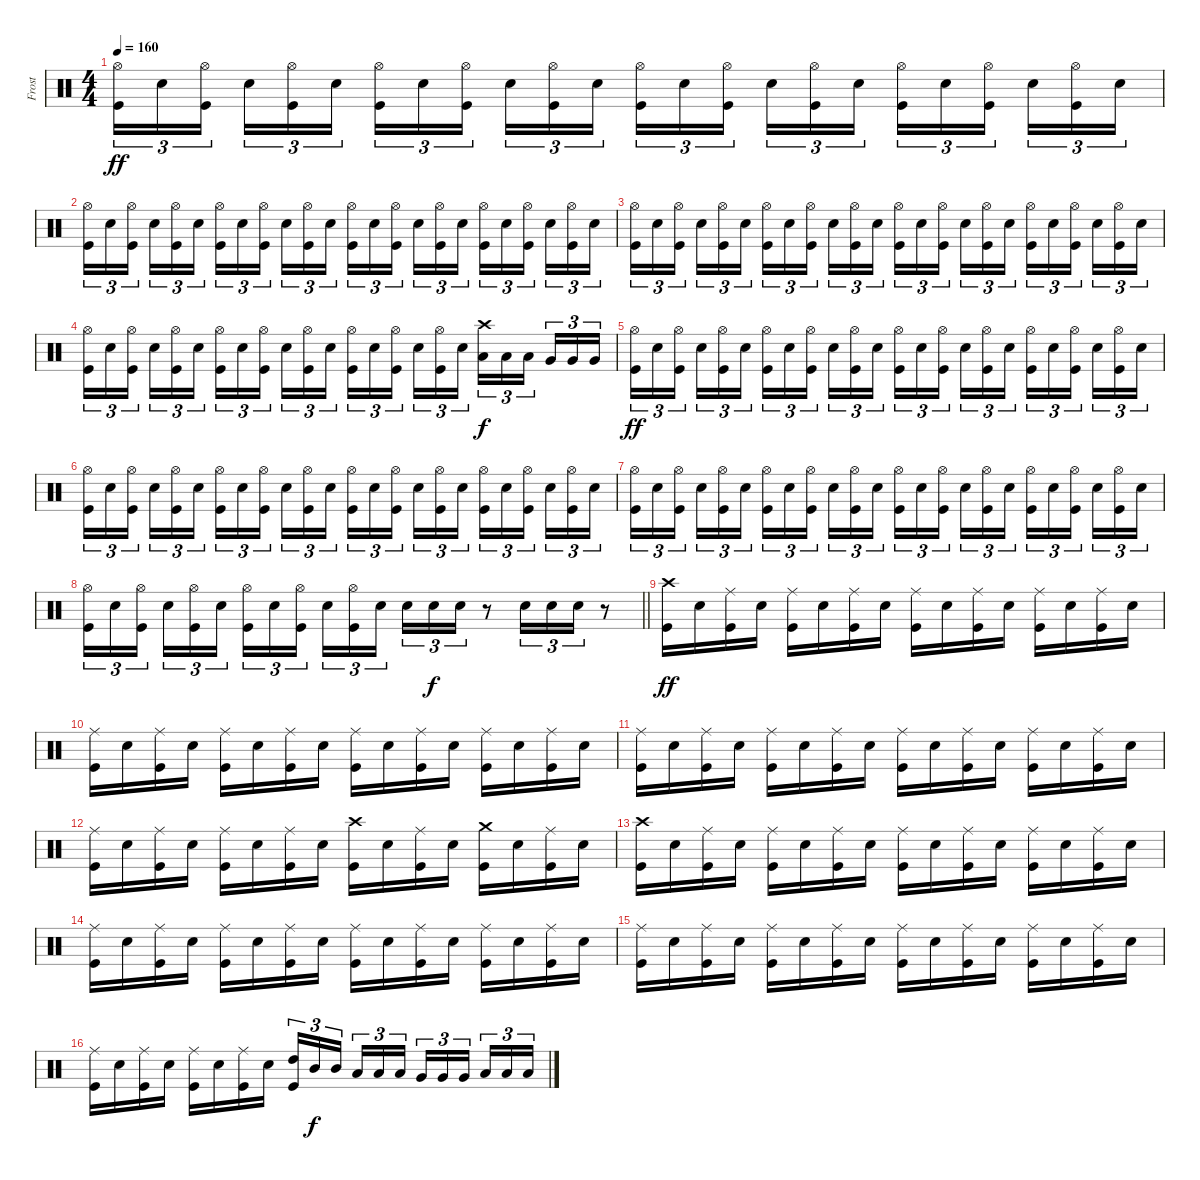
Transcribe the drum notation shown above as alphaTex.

\track ("Frost" "Frost") {instrument percussion}
\staff {score}
\articulation defaults
\ts (4 4)
\tempo 160
\clef neutral
\ks c
("Hi-Hat (open)" "Kick (hit)").16{tu (3 2) dy ff} "Snare (hit) 2".16{tu (3 2)} ("Hi-Hat (open)" "Kick (hit)").16{tu (3 2) beam splitsecondary} "Snare (hit) 2".16{tu (3 2)} ("Hi-Hat (open)" "Kick (hit)").16{tu (3 2)} "Snare (hit) 2".16{tu (3 2)} ("Hi-Hat (open)" "Kick (hit)").16{tu (3 2)} "Snare (hit) 2".16{tu (3 2)} ("Hi-Hat (open)" "Kick (hit)").16{tu (3 2) beam splitsecondary} "Snare (hit) 2".16{tu (3 2)} ("Hi-Hat (open)" "Kick (hit)").16{tu (3 2)} "Snare (hit) 2".16{tu (3 2)} ("Hi-Hat (open)" "Kick (hit)").16{tu (3 2)} "Snare (hit) 2".16{tu (3 2)} ("Hi-Hat (open)" "Kick (hit)").16{tu (3 2) beam splitsecondary} "Snare (hit) 2".16{tu (3 2)} ("Hi-Hat (open)" "Kick (hit)").16{tu (3 2)} "Snare (hit) 2".16{tu (3 2)} ("Hi-Hat (open)" "Kick (hit)").16{tu (3 2)} "Snare (hit) 2".16{tu (3 2)} ("Hi-Hat (open)" "Kick (hit)").16{tu (3 2) beam splitsecondary} "Snare (hit) 2".16{tu (3 2)} ("Hi-Hat (open)" "Kick (hit)").16{tu (3 2)} "Snare (hit) 2".16{tu (3 2)} |
("Hi-Hat (open)" "Kick (hit)").16{tu (3 2)} "Snare (hit) 2".16{tu (3 2)} ("Hi-Hat (open)" "Kick (hit)").16{tu (3 2) beam splitsecondary} "Snare (hit) 2".16{tu (3 2)} ("Hi-Hat (open)" "Kick (hit)").16{tu (3 2)} "Snare (hit) 2".16{tu (3 2)} ("Hi-Hat (open)" "Kick (hit)").16{tu (3 2)} "Snare (hit) 2".16{tu (3 2)} ("Hi-Hat (open)" "Kick (hit)").16{tu (3 2) beam splitsecondary} "Snare (hit) 2".16{tu (3 2)} ("Hi-Hat (open)" "Kick (hit)").16{tu (3 2)} "Snare (hit) 2".16{tu (3 2)} ("Hi-Hat (open)" "Kick (hit)").16{tu (3 2)} "Snare (hit) 2".16{tu (3 2)} ("Hi-Hat (open)" "Kick (hit)").16{tu (3 2) beam splitsecondary} "Snare (hit) 2".16{tu (3 2)} ("Hi-Hat (open)" "Kick (hit)").16{tu (3 2)} "Snare (hit) 2".16{tu (3 2)} ("Hi-Hat (open)" "Kick (hit)").16{tu (3 2)} "Snare (hit) 2".16{tu (3 2)} ("Hi-Hat (open)" "Kick (hit)").16{tu (3 2) beam splitsecondary} "Snare (hit) 2".16{tu (3 2)} ("Hi-Hat (open)" "Kick (hit)").16{tu (3 2)} "Snare (hit) 2".16{tu (3 2)} |
("Hi-Hat (open)" "Kick (hit)").16{tu (3 2)} "Snare (hit) 2".16{tu (3 2)} ("Hi-Hat (open)" "Kick (hit)").16{tu (3 2) beam splitsecondary} "Snare (hit) 2".16{tu (3 2)} ("Hi-Hat (open)" "Kick (hit)").16{tu (3 2)} "Snare (hit) 2".16{tu (3 2)} ("Hi-Hat (open)" "Kick (hit)").16{tu (3 2)} "Snare (hit) 2".16{tu (3 2)} ("Hi-Hat (open)" "Kick (hit)").16{tu (3 2) beam splitsecondary} "Snare (hit) 2".16{tu (3 2)} ("Hi-Hat (open)" "Kick (hit)").16{tu (3 2)} "Snare (hit) 2".16{tu (3 2)} ("Hi-Hat (open)" "Kick (hit)").16{tu (3 2)} "Snare (hit) 2".16{tu (3 2)} ("Hi-Hat (open)" "Kick (hit)").16{tu (3 2) beam splitsecondary} "Snare (hit) 2".16{tu (3 2)} ("Hi-Hat (open)" "Kick (hit)").16{tu (3 2)} "Snare (hit) 2".16{tu (3 2)} ("Hi-Hat (open)" "Kick (hit)").16{tu (3 2)} "Snare (hit) 2".16{tu (3 2)} ("Hi-Hat (open)" "Kick (hit)").16{tu (3 2) beam splitsecondary} "Snare (hit) 2".16{tu (3 2)} ("Hi-Hat (open)" "Kick (hit)").16{tu (3 2)} "Snare (hit) 2".16{tu (3 2)} |
("Hi-Hat (open)" "Kick (hit)").16{tu (3 2)} "Snare (hit) 2".16{tu (3 2)} ("Hi-Hat (open)" "Kick (hit)").16{tu (3 2) beam splitsecondary} "Snare (hit) 2".16{tu (3 2)} ("Hi-Hat (open)" "Kick (hit)").16{tu (3 2)} "Snare (hit) 2".16{tu (3 2)} ("Hi-Hat (open)" "Kick (hit)").16{tu (3 2)} "Snare (hit) 2".16{tu (3 2)} ("Hi-Hat (open)" "Kick (hit)").16{tu (3 2) beam splitsecondary} "Snare (hit) 2".16{tu (3 2)} ("Hi-Hat (open)" "Kick (hit)").16{tu (3 2)} "Snare (hit) 2".16{tu (3 2)} ("Hi-Hat (open)" "Kick (hit)").16{tu (3 2)} "Snare (hit) 2".16{tu (3 2)} ("Hi-Hat (open)" "Kick (hit)").16{tu (3 2) beam splitsecondary} "Snare (hit) 2".16{tu (3 2)} ("Hi-Hat (open)" "Kick (hit)").16{tu (3 2)} "Snare (hit) 2".16{tu (3 2)} ("Crash high (hit)" "Low Tom (hit)").16{tu (3 2) dy f} "Low Tom (hit)".16{tu (3 2)} "Low Tom (hit)".16{tu (3 2) beam splitsecondary} "Very Low Tom (hit)".16{tu (3 2)} "Very Low Tom (hit)".16{tu (3 2)} "Very Low Tom (hit)".16{tu (3 2)} |
("Hi-Hat (open)" "Kick (hit)").16{tu (3 2) dy ff} "Snare (hit) 2".16{tu (3 2)} ("Hi-Hat (open)" "Kick (hit)").16{tu (3 2) beam splitsecondary} "Snare (hit) 2".16{tu (3 2)} ("Hi-Hat (open)" "Kick (hit)").16{tu (3 2)} "Snare (hit) 2".16{tu (3 2)} ("Hi-Hat (open)" "Kick (hit)").16{tu (3 2)} "Snare (hit) 2".16{tu (3 2)} ("Hi-Hat (open)" "Kick (hit)").16{tu (3 2) beam splitsecondary} "Snare (hit) 2".16{tu (3 2)} ("Hi-Hat (open)" "Kick (hit)").16{tu (3 2)} "Snare (hit) 2".16{tu (3 2)} ("Hi-Hat (open)" "Kick (hit)").16{tu (3 2)} "Snare (hit) 2".16{tu (3 2)} ("Hi-Hat (open)" "Kick (hit)").16{tu (3 2) beam splitsecondary} "Snare (hit) 2".16{tu (3 2)} ("Hi-Hat (open)" "Kick (hit)").16{tu (3 2)} "Snare (hit) 2".16{tu (3 2)} ("Hi-Hat (open)" "Kick (hit)").16{tu (3 2)} "Snare (hit) 2".16{tu (3 2)} ("Hi-Hat (open)" "Kick (hit)").16{tu (3 2) beam splitsecondary} "Snare (hit) 2".16{tu (3 2)} ("Hi-Hat (open)" "Kick (hit)").16{tu (3 2)} "Snare (hit) 2".16{tu (3 2)} |
("Hi-Hat (open)" "Kick (hit)").16{tu (3 2)} "Snare (hit) 2".16{tu (3 2)} ("Hi-Hat (open)" "Kick (hit)").16{tu (3 2) beam splitsecondary} "Snare (hit) 2".16{tu (3 2)} ("Hi-Hat (open)" "Kick (hit)").16{tu (3 2)} "Snare (hit) 2".16{tu (3 2)} ("Hi-Hat (open)" "Kick (hit)").16{tu (3 2)} "Snare (hit) 2".16{tu (3 2)} ("Hi-Hat (open)" "Kick (hit)").16{tu (3 2) beam splitsecondary} "Snare (hit) 2".16{tu (3 2)} ("Hi-Hat (open)" "Kick (hit)").16{tu (3 2)} "Snare (hit) 2".16{tu (3 2)} ("Hi-Hat (open)" "Kick (hit)").16{tu (3 2)} "Snare (hit) 2".16{tu (3 2)} ("Hi-Hat (open)" "Kick (hit)").16{tu (3 2) beam splitsecondary} "Snare (hit) 2".16{tu (3 2)} ("Hi-Hat (open)" "Kick (hit)").16{tu (3 2)} "Snare (hit) 2".16{tu (3 2)} ("Hi-Hat (open)" "Kick (hit)").16{tu (3 2)} "Snare (hit) 2".16{tu (3 2)} ("Hi-Hat (open)" "Kick (hit)").16{tu (3 2) beam splitsecondary} "Snare (hit) 2".16{tu (3 2)} ("Hi-Hat (open)" "Kick (hit)").16{tu (3 2)} "Snare (hit) 2".16{tu (3 2)} |
("Hi-Hat (open)" "Kick (hit)").16{tu (3 2)} "Snare (hit) 2".16{tu (3 2)} ("Hi-Hat (open)" "Kick (hit)").16{tu (3 2) beam splitsecondary} "Snare (hit) 2".16{tu (3 2)} ("Hi-Hat (open)" "Kick (hit)").16{tu (3 2)} "Snare (hit) 2".16{tu (3 2)} ("Hi-Hat (open)" "Kick (hit)").16{tu (3 2)} "Snare (hit) 2".16{tu (3 2)} ("Hi-Hat (open)" "Kick (hit)").16{tu (3 2) beam splitsecondary} "Snare (hit) 2".16{tu (3 2)} ("Hi-Hat (open)" "Kick (hit)").16{tu (3 2)} "Snare (hit) 2".16{tu (3 2)} ("Hi-Hat (open)" "Kick (hit)").16{tu (3 2)} "Snare (hit) 2".16{tu (3 2)} ("Hi-Hat (open)" "Kick (hit)").16{tu (3 2) beam splitsecondary} "Snare (hit) 2".16{tu (3 2)} ("Hi-Hat (open)" "Kick (hit)").16{tu (3 2)} "Snare (hit) 2".16{tu (3 2)} ("Hi-Hat (open)" "Kick (hit)").16{tu (3 2)} "Snare (hit) 2".16{tu (3 2)} ("Hi-Hat (open)" "Kick (hit)").16{tu (3 2) beam splitsecondary} "Snare (hit) 2".16{tu (3 2)} ("Hi-Hat (open)" "Kick (hit)").16{tu (3 2)} "Snare (hit) 2".16{tu (3 2)} |
\barLineRight lightlight
("Hi-Hat (open)" "Kick (hit)").16{tu (3 2)} "Snare (hit) 2".16{tu (3 2)} ("Hi-Hat (open)" "Kick (hit)").16{tu (3 2) beam splitsecondary} "Snare (hit) 2".16{tu (3 2)} ("Hi-Hat (open)" "Kick (hit)").16{tu (3 2)} "Snare (hit) 2".16{tu (3 2)} ("Hi-Hat (open)" "Kick (hit)").16{tu (3 2)} "Snare (hit) 2".16{tu (3 2)} ("Hi-Hat (open)" "Kick (hit)").16{tu (3 2) beam splitsecondary} "Snare (hit) 2".16{tu (3 2)} ("Hi-Hat (open)" "Kick (hit)").16{tu (3 2)} "Snare (hit) 2".16{tu (3 2)} "Snare (hit) 2".16{tu (3 2)} "Snare (hit) 2".16{tu (3 2) dy f} "Snare (hit) 2".16{tu (3 2)} r.8 "Snare (hit) 2".16{tu (3 2)} "Snare (hit) 2".16{tu (3 2)} "Snare (hit) 2".16{tu (3 2)} r.8 |
("Crash high (hit)" "Kick (hit)").16{dy ff} "Snare (hit) 2".16 ("Ride (middle)" "Kick (hit)").16 "Snare (hit) 2".16 ("Ride (middle)" "Kick (hit)").16 "Snare (hit) 2".16 ("Ride (middle)" "Kick (hit)").16 "Snare (hit) 2".16 ("Ride (middle)" "Kick (hit)").16 "Snare (hit) 2".16 ("Ride (middle)" "Kick (hit)").16 "Snare (hit) 2".16 ("Ride (middle)" "Kick (hit)").16 "Snare (hit) 2".16 ("Ride (middle)" "Kick (hit)").16 "Snare (hit) 2".16 |
("Ride (middle)" "Kick (hit)").16 "Snare (hit) 2".16 ("Ride (middle)" "Kick (hit)").16 "Snare (hit) 2".16 ("Ride (middle)" "Kick (hit)").16 "Snare (hit) 2".16 ("Ride (middle)" "Kick (hit)").16 "Snare (hit) 2".16 ("Ride (middle)" "Kick (hit)").16 "Snare (hit) 2".16 ("Ride (middle)" "Kick (hit)").16 "Snare (hit) 2".16 ("Ride (middle)" "Kick (hit)").16 "Snare (hit) 2".16 ("Ride (middle)" "Kick (hit)").16 "Snare (hit) 2".16 |
("Ride (middle)" "Kick (hit)").16 "Snare (hit) 2".16 ("Ride (middle)" "Kick (hit)").16 "Snare (hit) 2".16 ("Ride (middle)" "Kick (hit)").16 "Snare (hit) 2".16 ("Ride (middle)" "Kick (hit)").16 "Snare (hit) 2".16 ("Ride (middle)" "Kick (hit)").16 "Snare (hit) 2".16 ("Ride (middle)" "Kick (hit)").16 "Snare (hit) 2".16 ("Ride (middle)" "Kick (hit)").16 "Snare (hit) 2".16 ("Ride (middle)" "Kick (hit)").16 "Snare (hit) 2".16 |
("Ride (middle)" "Kick (hit)").16 "Snare (hit) 2".16 ("Ride (middle)" "Kick (hit)").16 "Snare (hit) 2".16 ("Ride (middle)" "Kick (hit)").16 "Snare (hit) 2".16 ("Ride (middle)" "Kick (hit)").16 "Snare (hit) 2".16 ("Crash high (hit)" "Kick (hit)").16 "Snare (hit) 2".16 ("Ride (middle)" "Kick (hit)").16 "Snare (hit) 2".16 ("Crash medium (hit)" "Kick (hit)").16 "Snare (hit) 2".16 ("Ride (middle)" "Kick (hit)").16 "Snare (hit) 2".16 |
("Crash high (hit)" "Kick (hit)").16 "Snare (hit) 2".16 ("Ride (middle)" "Kick (hit)").16 "Snare (hit) 2".16 ("Ride (middle)" "Kick (hit)").16 "Snare (hit) 2".16 ("Ride (middle)" "Kick (hit)").16 "Snare (hit) 2".16 ("Ride (middle)" "Kick (hit)").16 "Snare (hit) 2".16 ("Ride (middle)" "Kick (hit)").16 "Snare (hit) 2".16 ("Ride (middle)" "Kick (hit)").16 "Snare (hit) 2".16 ("Ride (middle)" "Kick (hit)").16 "Snare (hit) 2".16 |
("Ride (middle)" "Kick (hit)").16 "Snare (hit) 2".16 ("Ride (middle)" "Kick (hit)").16 "Snare (hit) 2".16 ("Ride (middle)" "Kick (hit)").16 "Snare (hit) 2".16 ("Ride (middle)" "Kick (hit)").16 "Snare (hit) 2".16 ("Ride (middle)" "Kick (hit)").16 "Snare (hit) 2".16 ("Ride (middle)" "Kick (hit)").16 "Snare (hit) 2".16 ("Ride (middle)" "Kick (hit)").16 "Snare (hit) 2".16 ("Ride (middle)" "Kick (hit)").16 "Snare (hit) 2".16 |
("Ride (middle)" "Kick (hit)").16 "Snare (hit) 2".16 ("Ride (middle)" "Kick (hit)").16 "Snare (hit) 2".16 ("Ride (middle)" "Kick (hit)").16 "Snare (hit) 2".16 ("Ride (middle)" "Kick (hit)").16 "Snare (hit) 2".16 ("Ride (middle)" "Kick (hit)").16 "Snare (hit) 2".16 ("Ride (middle)" "Kick (hit)").16 "Snare (hit) 2".16 ("Ride (middle)" "Kick (hit)").16 "Snare (hit) 2".16 ("Ride (middle)" "Kick (hit)").16 "Snare (hit) 2".16 |
("Ride (middle)" "Kick (hit)").16 "Snare (hit) 2".16 ("Ride (middle)" "Kick (hit)").16 "Snare (hit) 2".16 ("Ride (middle)" "Kick (hit)").16 "Snare (hit) 2".16 ("Ride (middle)" "Kick (hit)").16 "Snare (hit) 2".16 ("High Tom (hit)" "Kick (hit)").16{tu (3 2)} "Mid Tom (hit)".16{tu (3 2) dy f} "Mid Tom (hit)".16{tu (3 2) beam splitsecondary} "Low Tom (hit)".16{tu (3 2)} "Low Tom (hit)".16{tu (3 2)} "Low Tom (hit)".16{tu (3 2)} "Very Low Tom (hit)".16{tu (3 2)} "Very Low Tom (hit)".16{tu (3 2)} "Very Low Tom (hit)".16{tu (3 2) beam splitsecondary} "Low Floor Tom (hit)".16{tu (3 2)} "Low Floor Tom (hit)".16{tu (3 2)} "Low Floor Tom (hit)".16{tu (3 2)}
